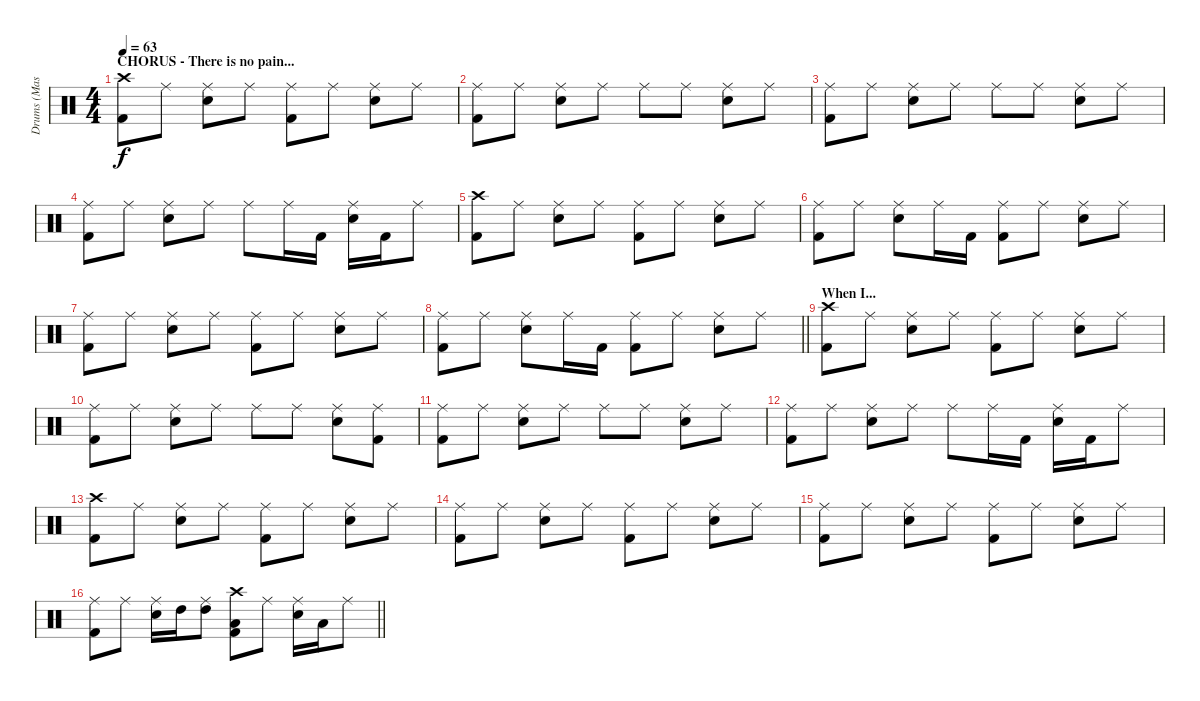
\track ("Drums (Mason)" "Drums (Mas") {instrument percussion}
\staff {score}
\articulation defaults
\ts (4 4)
\section ("" "CHORUS - There is no pain...")
\tempo 63
\clef neutral
\ks c
("Crash high (hit)" "Kick (hit) 2").8{dy f} "Ride (middle)".8 ("Ride (middle)" "Snare (hit) 2").8 "Ride (middle)".8 ("Ride (middle)" "Kick (hit) 2").8 "Ride (middle)".8 ("Ride (middle)" "Snare (hit) 2").8 "Ride (middle)".8 |
("Ride (middle)" "Kick (hit) 2").8 "Ride (middle)".8 ("Ride (middle)" "Snare (hit) 2").8 "Ride (middle)".8 "Ride (middle)".8 "Ride (middle)".8 ("Ride (middle)" "Snare (hit) 2").8 "Ride (middle)".8 |
("Ride (middle)" "Kick (hit) 2").8 "Ride (middle)".8 ("Ride (middle)" "Snare (hit) 2").8 "Ride (middle)".8 "Ride (middle)".8 "Ride (middle)".8 ("Ride (middle)" "Snare (hit) 2").8 "Ride (middle)".8 |
("Ride (middle)" "Kick (hit) 2").8 "Ride (middle)".8 ("Ride (middle)" "Snare (hit) 2").8 "Ride (middle)".8 "Ride (middle)".8 "Ride (middle)".16 "Kick (hit) 2".16 ("Ride (middle)" "Snare (hit) 2").16 "Kick (hit) 2".16 "Ride (middle)".8 |
("Crash high (hit)" "Kick (hit) 2").8 "Ride (middle)".8 ("Ride (middle)" "Snare (hit) 2").8 "Ride (middle)".8 ("Ride (middle)" "Kick (hit) 2").8 "Ride (middle)".8 ("Ride (middle)" "Snare (hit) 2").8 "Ride (middle)".8 |
("Ride (middle)" "Kick (hit) 2").8 "Ride (middle)".8 ("Ride (middle)" "Snare (hit) 2").8 "Ride (middle)".16 "Kick (hit) 2".16 ("Ride (middle)" "Kick (hit) 2").8 "Ride (middle)".8 ("Ride (middle)" "Snare (hit) 2").8 "Ride (middle)".8 |
("Ride (middle)" "Kick (hit) 2").8 "Ride (middle)".8 ("Ride (middle)" "Snare (hit) 2").8 "Ride (middle)".8 ("Ride (middle)" "Kick (hit) 2").8 "Ride (middle)".8 ("Ride (middle)" "Snare (hit) 2").8 "Ride (middle)".8 |
\barLineRight lightlight
("Ride (middle)" "Kick (hit) 2").8 "Ride (middle)".8 ("Ride (middle)" "Snare (hit) 2").8 "Ride (middle)".16 "Kick (hit) 2".16 ("Ride (middle)" "Kick (hit) 2").8 "Ride (middle)".8 ("Ride (middle)" "Snare (hit) 2").8 "Ride (middle)".8 |
\section ("" "When I...")
("Crash high (hit)" "Kick (hit) 2").8 "Ride (middle)".8 ("Ride (middle)" "Snare (hit) 2").8 "Ride (middle)".8 ("Ride (middle)" "Kick (hit) 2").8 "Ride (middle)".8 ("Ride (middle)" "Snare (hit) 2").8 "Ride (middle)".8 |
("Ride (middle)" "Kick (hit) 2").8 "Ride (middle)".8 ("Ride (middle)" "Snare (hit) 2").8 "Ride (middle)".8 "Ride (middle)".8 "Ride (middle)".8 ("Ride (middle)" "Snare (hit) 2").8 ("Ride (middle)" "Kick (hit) 2").8 |
("Ride (middle)" "Kick (hit) 2").8 "Ride (middle)".8 ("Ride (middle)" "Snare (hit) 2").8 "Ride (middle)".8 "Ride (middle)".8 "Ride (middle)".8 ("Ride (middle)" "Snare (hit) 2").8 "Ride (middle)".8 |
("Ride (middle)" "Kick (hit) 2").8 "Ride (middle)".8 ("Ride (middle)" "Snare (hit) 2").8 "Ride (middle)".8 "Ride (middle)".8 "Ride (middle)".16 "Kick (hit) 2".16 ("Ride (middle)" "Snare (hit) 2").16 "Kick (hit) 2".16 "Ride (middle)".8 |
("Crash high (hit)" "Kick (hit) 2").8 "Ride (middle)".8 ("Ride (middle)" "Snare (hit) 2").8 "Ride (middle)".8 ("Ride (middle)" "Kick (hit) 2").8 "Ride (middle)".8 ("Ride (middle)" "Snare (hit) 2").8 "Ride (middle)".8 |
("Ride (middle)" "Kick (hit) 2").8 "Ride (middle)".8 ("Ride (middle)" "Snare (hit) 2").8 "Ride (middle)".8 ("Ride (middle)" "Kick (hit) 2").8 "Ride (middle)".8 ("Ride (middle)" "Snare (hit) 2").8 "Ride (middle)".8 |
("Ride (middle)" "Kick (hit) 2").8 "Ride (middle)".8 ("Ride (middle)" "Snare (hit) 2").8 "Ride (middle)".8 ("Ride (middle)" "Kick (hit) 2").8 "Ride (middle)".8 ("Ride (middle)" "Snare (hit) 2").8 "Ride (middle)".8 |
\barLineRight lightlight
("Ride (middle)" "Kick (hit) 2").8 "Ride (middle)".8 ("Ride (middle)" "Snare (hit) 2").16 "High Tom (hit)".16 ("Ride (middle)" "High Tom (hit)").8 ("Crash high (hit)" "Low Tom (hit)" "Kick (hit) 2").8 "Ride (middle)".8 ("Ride (middle)" "Snare (hit) 2").16 "Low Floor Tom (hit)".16 "Ride (middle)".8
